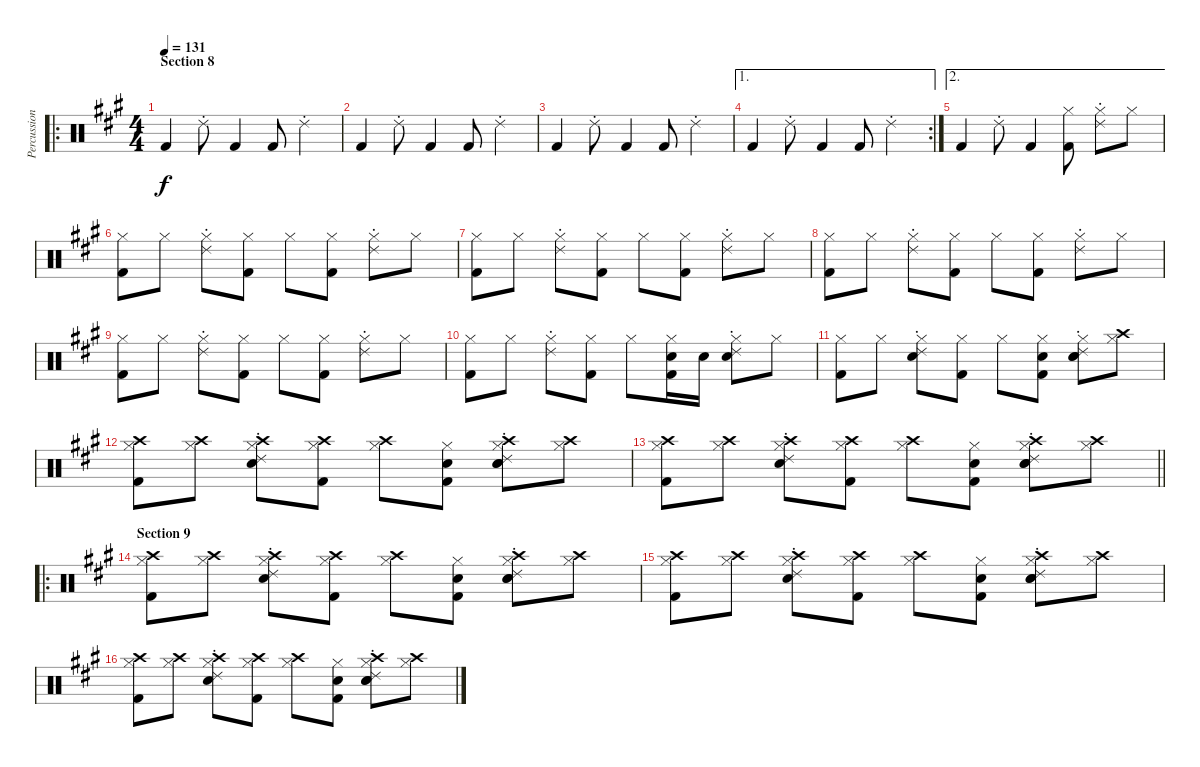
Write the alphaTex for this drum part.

\track ("Percussion" "Percussion") {instrument percussion bank 2}
\staff {score}
\articulation defaults
\ro
\ts (4 4)
\section ("" "Section 8")
\tempo 131
\clef neutral
\ks f#minor "Kick (hit) 2".4{dy f} "Ride (choke) 2".8 "Kick (hit) 2".4 "Kick (hit) 2".8 "Ride (choke) 2".4
|
"Kick (hit) 2".4 "Ride (choke) 2".8 "Kick (hit) 2".4 "Kick (hit) 2".8 "Ride (choke) 2".4 |
"Kick (hit) 2".4 "Ride (choke) 2".8 "Kick (hit) 2".4 "Kick (hit) 2".8 "Ride (choke) 2".4 |
\ae 1
\rc 2 "Kick (hit) 2".4 "Ride (choke) 2".8 "Kick (hit) 2".4 "Kick (hit) 2".8 "Ride (choke) 2".4
|
\ae 2 "Kick (hit) 2".4 "Ride (choke) 2".8 "Kick (hit) 2".4
("Hi-Hat (closed)" "Kick (hit) 2").8 ("Hi-Hat (closed)" "Ride (choke) 2").8 "Hi-Hat (closed)".8 |
("Hi-Hat (closed)" "Kick (hit) 2").8 "Hi-Hat (closed)".8 ("Hi-Hat (closed)" "Ride (choke) 2").8 ("Hi-Hat (closed)" "Kick (hit) 2").8 "Hi-Hat (closed)".8 ("Hi-Hat (closed)" "Kick (hit) 2").8 ("Hi-Hat (closed)" "Ride (choke) 2").8 "Hi-Hat (closed)".8 |
("Hi-Hat (closed)" "Kick (hit) 2").8 "Hi-Hat (closed)".8 ("Hi-Hat (closed)" "Ride (choke) 2").8 ("Hi-Hat (closed)" "Kick (hit) 2").8 "Hi-Hat (closed)".8 ("Hi-Hat (closed)" "Kick (hit) 2").8 ("Hi-Hat (closed)" "Ride (choke) 2").8 "Hi-Hat (closed)".8 |
("Hi-Hat (closed)" "Kick (hit) 2").8 "Hi-Hat (closed)".8 ("Hi-Hat (closed)" "Ride (choke) 2").8 ("Hi-Hat (closed)" "Kick (hit) 2").8 "Hi-Hat (closed)".8 ("Hi-Hat (closed)" "Kick (hit) 2").8 ("Hi-Hat (closed)" "Ride (choke) 2").8 "Hi-Hat (closed)".8 |
("Hi-Hat (closed)" "Kick (hit) 2").8 "Hi-Hat (closed)".8 ("Hi-Hat (closed)" "Ride (choke) 2").8 ("Hi-Hat (closed)" "Kick (hit) 2").8 "Hi-Hat (closed)".8 ("Hi-Hat (closed)" "Kick (hit) 2").8 ("Hi-Hat (closed)" "Ride (choke) 2").8 "Hi-Hat (closed)".8 |
("Hi-Hat (closed)" "Kick (hit) 2").8 "Hi-Hat (closed)".8 ("Hi-Hat (closed)" "Ride (choke) 2").8 ("Hi-Hat (closed)" "Kick (hit) 2").8 "Hi-Hat (closed)".8 ("Hi-Hat (closed)" "Hand Clap (hit)" "Kick (hit) 2").16 "Hand Clap (hit)".16 ("Hi-Hat (closed)" "Hand Clap (hit)" "Ride (choke) 2").8 "Hi-Hat (closed)".8 |
("Hi-Hat (closed)" "Kick (hit) 2").8 "Hi-Hat (closed)".8 ("Hi-Hat (closed)" "Snare (hit) 2" "Ride (choke) 2").8 ("Hi-Hat (closed)" "Kick (hit) 2").8 "Hi-Hat (closed)".8 ("Hi-Hat (closed)" "Hand Clap (hit)" "Kick (hit) 2").8 ("Hi-Hat (closed)" "Hand Clap (hit)" "Snare (hit) 2" "Ride (choke) 2").8 ("Crash high (hit)" "Hi-Hat (closed)").8 |
("Crash high (hit)" "Hi-Hat (closed)" "Kick (hit) 2").8 ("Crash high (hit)" "Hi-Hat (closed)").8 ("Crash high (hit)" "Hi-Hat (closed)" "Snare (hit) 2" "Ride (choke) 2").8 ("Crash high (hit)" "Hi-Hat (closed)" "Kick (hit) 2").8 ("Crash high (hit)" "Hi-Hat (closed)").8 ("Hi-Hat (closed)" "Hand Clap (hit)" "Kick (hit) 2").8 ("Crash high (hit)" "Hi-Hat (closed)" "Hand Clap (hit)" "Snare (hit) 2" "Ride (choke) 2").8 ("Crash high (hit)" "Hi-Hat (closed)").8 |
\barLineRight lightlight
("Crash high (hit)" "Hi-Hat (closed)" "Kick (hit) 2").8 ("Crash high (hit)" "Hi-Hat (closed)").8 ("Crash high (hit)" "Hi-Hat (closed)" "Snare (hit) 2" "Ride (choke) 2").8 ("Crash high (hit)" "Hi-Hat (closed)" "Kick (hit) 2").8 ("Crash high (hit)" "Hi-Hat (closed)").8 ("Hi-Hat (closed)" "Hand Clap (hit)" "Kick (hit) 2").8 ("Crash high (hit)" "Hi-Hat (closed)" "Hand Clap (hit)" "Snare (hit) 2" "Ride (choke) 2").8 ("Crash high (hit)" "Hi-Hat (closed)").8 |
\ro
\section ("" "Section 9")
("Crash high (hit)" "Hi-Hat (closed)" "Kick (hit) 2").8 ("Crash high (hit)" "Hi-Hat (closed)").8 ("Crash high (hit)" "Hi-Hat (closed)" "Snare (hit) 2" "Ride (choke) 2").8 ("Crash high (hit)" "Hi-Hat (closed)" "Kick (hit) 2").8 ("Crash high (hit)" "Hi-Hat (closed)").8 ("Hi-Hat (closed)" "Hand Clap (hit)" "Kick (hit) 2").8 ("Crash high (hit)" "Hi-Hat (closed)" "Hand Clap (hit)" "Snare (hit) 2" "Ride (choke) 2").8 ("Crash high (hit)" "Hi-Hat (closed)").8 |
("Crash high (hit)" "Hi-Hat (closed)" "Kick (hit) 2").8 ("Crash high (hit)" "Hi-Hat (closed)").8 ("Crash high (hit)" "Hi-Hat (closed)" "Snare (hit) 2" "Ride (choke) 2").8 ("Crash high (hit)" "Hi-Hat (closed)" "Kick (hit) 2").8 ("Crash high (hit)" "Hi-Hat (closed)").8 ("Hi-Hat (closed)" "Hand Clap (hit)" "Kick (hit) 2").8 ("Crash high (hit)" "Hi-Hat (closed)" "Hand Clap (hit)" "Snare (hit) 2" "Ride (choke) 2").8 ("Crash high (hit)" "Hi-Hat (closed)").8 |
("Crash high (hit)" "Hi-Hat (closed)" "Kick (hit) 2").8 ("Crash high (hit)" "Hi-Hat (closed)").8 ("Crash high (hit)" "Hi-Hat (closed)" "Snare (hit) 2" "Ride (choke) 2").8 ("Crash high (hit)" "Hi-Hat (closed)" "Kick (hit) 2").8 ("Crash high (hit)" "Hi-Hat (closed)").8 ("Hi-Hat (closed)" "Hand Clap (hit)" "Kick (hit) 2").8 ("Crash high (hit)" "Hi-Hat (closed)" "Hand Clap (hit)" "Snare (hit) 2" "Ride (choke) 2").8 ("Crash high (hit)" "Hi-Hat (closed)").8
